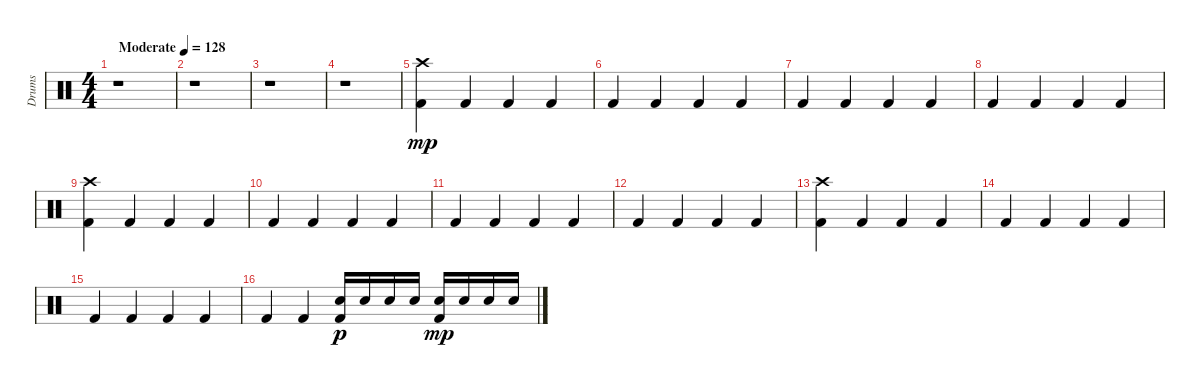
\track ("Drums" "Drums") {instrument percussion}
\staff {score}
\articulation defaults
\ts (4 4)
\tempo (128 "Moderate")
\clef neutral
\ks c
r.1{dy mp} |
r.1 |
r.1 |
r.1 |
("Crash high (hit)" "Kick (hit) 2").4 "Kick (hit) 2".4 "Kick (hit) 2".4 "Kick (hit) 2".4 |
"Kick (hit) 2".4 "Kick (hit) 2".4 "Kick (hit) 2".4 "Kick (hit) 2".4 |
"Kick (hit) 2".4 "Kick (hit) 2".4 "Kick (hit) 2".4 "Kick (hit) 2".4 |
"Kick (hit) 2".4 "Kick (hit) 2".4 "Kick (hit) 2".4 "Kick (hit) 2".4 |
("Crash high (hit)" "Kick (hit) 2").4 "Kick (hit) 2".4 "Kick (hit) 2".4 "Kick (hit) 2".4 |
"Kick (hit) 2".4 "Kick (hit) 2".4 "Kick (hit) 2".4 "Kick (hit) 2".4 |
"Kick (hit) 2".4 "Kick (hit) 2".4 "Kick (hit) 2".4 "Kick (hit) 2".4 |
"Kick (hit) 2".4 "Kick (hit) 2".4 "Kick (hit) 2".4 "Kick (hit) 2".4 |
("Kick (hit) 2" "Crash high (hit)").4 "Kick (hit) 2".4 "Kick (hit) 2".4 "Kick (hit) 2".4 |
"Kick (hit) 2".4 "Kick (hit) 2".4 "Kick (hit) 2".4 "Kick (hit) 2".4 |
"Kick (hit) 2".4 "Kick (hit) 2".4 "Kick (hit) 2".4 "Kick (hit) 2".4 |
"Kick (hit) 2".4 "Kick (hit) 2".4 ("Kick (hit) 2" "Electric Snare (hit)").16{dy p} "Electric Snare (hit)".16 "Electric Snare (hit)".16 "Electric Snare (hit)".16 ("Kick (hit) 2" "Electric Snare (hit)").16{dy mp} "Electric Snare (hit)".16 "Electric Snare (hit)".16 "Electric Snare (hit)".16
